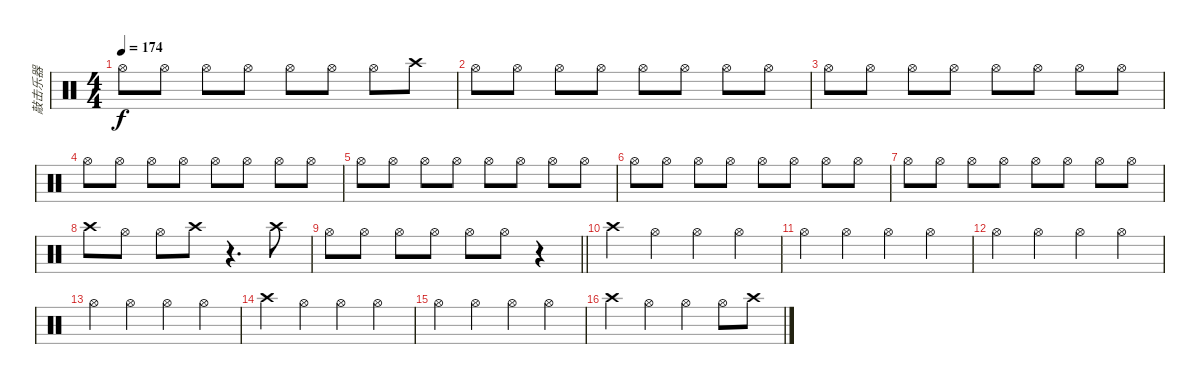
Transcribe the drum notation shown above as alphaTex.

\track ("敲击乐器" "敲击乐器") {instrument percussion}
\staff {score}
\articulation defaults
\ts (4 4)
\tempo 174
\clef neutral
\ks c "Hi-Hat (open)".8{dy f} "Hi-Hat (open)".8 "Hi-Hat (open)".8 "Hi-Hat (open)".8 "Hi-Hat (open)".8 "Hi-Hat (open)".8 "Hi-Hat (open)".8 "Crash high (hit)".8
|
"Hi-Hat (open)".8 "Hi-Hat (open)".8 "Hi-Hat (open)".8 "Hi-Hat (open)".8 "Hi-Hat (open)".8 "Hi-Hat (open)".8 "Hi-Hat (open)".8 "Hi-Hat (open)".8 |
"Hi-Hat (open)".8 "Hi-Hat (open)".8 "Hi-Hat (open)".8 "Hi-Hat (open)".8 "Hi-Hat (open)".8 "Hi-Hat (open)".8 "Hi-Hat (open)".8 "Hi-Hat (open)".8 |
"Hi-Hat (open)".8 "Hi-Hat (open)".8 "Hi-Hat (open)".8 "Hi-Hat (open)".8 "Hi-Hat (open)".8 "Hi-Hat (open)".8 "Hi-Hat (open)".8 "Hi-Hat (open)".8 |
"Hi-Hat (open)".8 "Hi-Hat (open)".8 "Hi-Hat (open)".8 "Hi-Hat (open)".8 "Hi-Hat (open)".8 "Hi-Hat (open)".8 "Hi-Hat (open)".8 "Hi-Hat (open)".8 |
"Hi-Hat (open)".8 "Hi-Hat (open)".8 "Hi-Hat (open)".8 "Hi-Hat (open)".8 "Hi-Hat (open)".8 "Hi-Hat (open)".8 "Hi-Hat (open)".8 "Hi-Hat (open)".8 |
"Hi-Hat (open)".8 "Hi-Hat (open)".8 "Hi-Hat (open)".8 "Hi-Hat (open)".8 "Hi-Hat (open)".8 "Hi-Hat (open)".8 "Hi-Hat (open)".8 "Hi-Hat (open)".8 |
"Crash high (hit)".8 "Hi-Hat (open)".8 "Hi-Hat (open)".8 "Crash high (hit)".8 r.4{d} "Crash high (hit)".8 |
\barLineRight lightlight "Hi-Hat (open)".8 "Hi-Hat (open)".8 "Hi-Hat (open)".8 "Hi-Hat (open)".8 "Hi-Hat (open)".8 "Hi-Hat (open)".8
r.4 |
"Crash high (hit)".4 "Hi-Hat (open)".4 "Hi-Hat (open)".4 "Hi-Hat (open)".4 |
"Hi-Hat (open)".4 "Hi-Hat (open)".4 "Hi-Hat (open)".4 "Hi-Hat (open)".4 |
"Hi-Hat (open)".4 "Hi-Hat (open)".4 "Hi-Hat (open)".4 "Hi-Hat (open)".4 |
"Hi-Hat (open)".4 "Hi-Hat (open)".4 "Hi-Hat (open)".4 "Hi-Hat (open)".4 |
"Crash high (hit)".4 "Hi-Hat (open)".4 "Hi-Hat (open)".4 "Hi-Hat (open)".4 |
"Hi-Hat (open)".4 "Hi-Hat (open)".4 "Hi-Hat (open)".4 "Hi-Hat (open)".4 |
"Crash high (hit)".4 "Hi-Hat (open)".4 "Hi-Hat (open)".4 "Hi-Hat (open)".8 "Crash high (hit)".8
